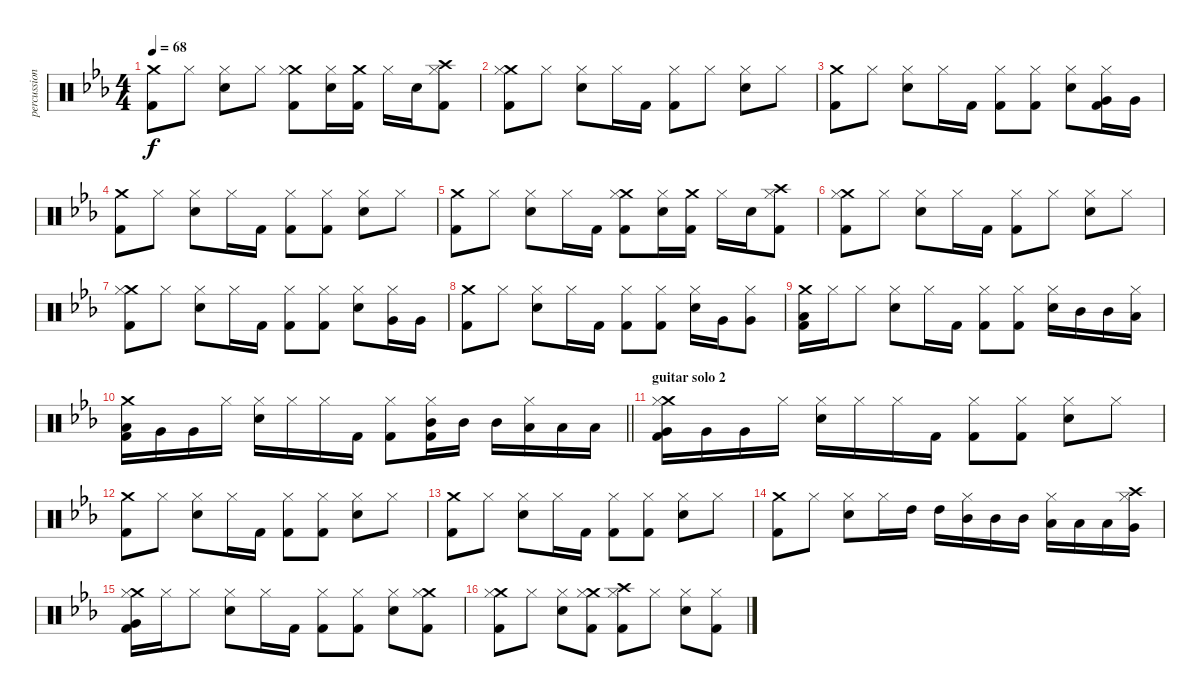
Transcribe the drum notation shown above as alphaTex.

\track ("percussion" "percussion") {instrument percussion}
\staff {score}
\articulation defaults
\ts (4 4)
\tempo 68
\clef neutral
\ks cminor
("Crash medium (hit)" "Kick (hit) 2").8{dy f} "Hi-Hat (closed)".8 ("Snare (hit) 2" "Hi-Hat (closed)").8 "Hi-Hat (closed)".8 ("Crash medium (hit)" "Hi-Hat (closed)" "Kick (hit) 2").8 ("Snare (hit) 2" "Hi-Hat (closed)").16 ("Crash medium (hit)" "Kick (hit) 2").16 "Hi-Hat (closed)".16 "Snare (hit) 2".16 ("Crash high (hit)" "Hi-Hat (closed)" "Kick (hit) 2").8 |
("Crash medium (hit)" "Hi-Hat (closed)" "Kick (hit) 2").8 "Hi-Hat (closed)".8 ("Snare (hit) 2" "Hi-Hat (closed)").8 "Hi-Hat (closed)".16 "Kick (hit) 2".16 ("Hi-Hat (closed)" "Kick (hit) 2").8 "Hi-Hat (closed)".8 ("Snare (hit) 2" "Hi-Hat (closed)").8 "Hi-Hat (closed)".8 |
("Crash medium (hit)" "Kick (hit) 2").8 "Hi-Hat (closed)".8 ("Snare (hit) 2" "Hi-Hat (closed)").8 "Hi-Hat (closed)".16 "Kick (hit) 2".16 ("Hi-Hat (closed)" "Kick (hit) 2").8 ("Hi-Hat (closed)" "Kick (hit) 2").8 ("Snare (hit) 2" "Hi-Hat (closed)").8 ("Very Low Tom (hit)" "Hi-Hat (closed)" "Kick (hit) 2").16 "Very Low Tom (hit)".16 |
("Crash medium (hit)" "Kick (hit) 2").8 "Hi-Hat (closed)".8 ("Snare (hit) 2" "Hi-Hat (closed)").8 "Hi-Hat (closed)".16 "Kick (hit) 2".16 ("Hi-Hat (closed)" "Kick (hit) 2").8 ("Hi-Hat (closed)" "Kick (hit) 2").8 ("Snare (hit) 2" "Hi-Hat (closed)").8 "Hi-Hat (closed)".8 |
("Crash medium (hit)" "Kick (hit) 2").8 "Hi-Hat (closed)".8 ("Snare (hit) 2" "Hi-Hat (closed)").8 "Hi-Hat (closed)".16 "Kick (hit) 2".16 ("Crash medium (hit)" "Hi-Hat (closed)" "Kick (hit) 2").8 ("Snare (hit) 2" "Hi-Hat (closed)").16 ("Crash medium (hit)" "Kick (hit) 2").16 "Hi-Hat (closed)".16 "Snare (hit) 2".16 ("Crash high (hit)" "Hi-Hat (closed)" "Kick (hit) 2").8 |
("Crash medium (hit)" "Hi-Hat (closed)" "Kick (hit) 2").8 "Hi-Hat (closed)".8 ("Snare (hit) 2" "Hi-Hat (closed)").8 "Hi-Hat (closed)".16 "Kick (hit) 2".16 ("Hi-Hat (closed)" "Kick (hit) 2").8 "Hi-Hat (closed)".8 ("Snare (hit) 2" "Hi-Hat (closed)").8 "Hi-Hat (closed)".8 |
("Crash medium (hit)" "Hi-Hat (closed)" "Kick (hit) 2").8 "Hi-Hat (closed)".8 ("Snare (hit) 2" "Hi-Hat (closed)").8 "Hi-Hat (closed)".16 "Kick (hit) 2".16 ("Hi-Hat (closed)" "Kick (hit) 2").8 ("Hi-Hat (closed)" "Kick (hit) 2").8 ("Snare (hit) 2" "Hi-Hat (closed)").8 ("Very Low Tom (hit)" "Hi-Hat (closed)").16 "Very Low Tom (hit)".16 |
("Crash medium (hit)" "Kick (hit) 2").8 "Hi-Hat (closed)".8 ("Snare (hit) 2" "Hi-Hat (closed)").8 "Hi-Hat (closed)".16 "Kick (hit) 2".16 ("Hi-Hat (closed)" "Kick (hit) 2").8 ("Hi-Hat (closed)" "Kick (hit) 2").8 ("Snare (hit) 2" "Hi-Hat (closed)").16 "Very Low Tom (hit)".16 ("Very Low Tom (hit)" "Hi-Hat (closed)").8 |
("Crash medium (hit)" "Low Tom (hit)" "Kick (hit) 2").16 "Hi-Hat (closed)".16 "Hi-Hat (closed)".8 ("Snare (hit) 2" "Hi-Hat (closed)").8 "Hi-Hat (closed)".16 "Kick (hit) 2".16 ("Hi-Hat (closed)" "Kick (hit) 2").8 ("Hi-Hat (closed)" "Kick (hit) 2").8 ("Snare (hit) 2" "Hi-Hat (closed)").16 "Mid Tom (hit)".16 "Mid Tom (hit)".16 ("Low Tom (hit)" "Hi-Hat (closed)").16 |
\barLineRight lightlight
("Crash medium (hit)" "Low Tom (hit)" "Kick (hit) 2").16 "Very Low Tom (hit)".16 "Very Low Tom (hit)".16 "Hi-Hat (closed)".16 ("Snare (hit) 2" "Hi-Hat (closed)").16 "Hi-Hat (closed)".16 "Hi-Hat (closed)".16 "Kick (hit) 2".16 ("Hi-Hat (closed)" "Kick (hit) 2").8 ("Mid Tom (hit)" "Hi-Hat (closed)" "Kick (hit) 2").16 "Mid Tom (hit)".16 "Mid Tom (hit)".16 ("Low Tom (hit)" "Hi-Hat (closed)").16 "Low Tom (hit)".16 "Low Tom (hit)".16 |
\section ("" "guitar solo 2")
("Crash medium (hit)" "Very Low Tom (hit)" "Hi-Hat (closed)" "Kick (hit) 2").16 "Very Low Tom (hit)".16 "Very Low Tom (hit)".16 "Hi-Hat (closed)".16 ("Snare (hit) 2" "Hi-Hat (closed)").16 "Hi-Hat (closed)".16 "Hi-Hat (closed)".16 "Kick (hit) 2".16 ("Hi-Hat (closed)" "Kick (hit) 2").8 ("Hi-Hat (closed)" "Kick (hit) 2").8 ("Snare (hit) 2" "Hi-Hat (closed)").8 "Hi-Hat (closed)".8 |
("Crash medium (hit)" "Kick (hit) 2").8 "Hi-Hat (closed)".8 ("Snare (hit) 2" "Hi-Hat (closed)").8 "Hi-Hat (closed)".16 "Kick (hit) 2".16 ("Hi-Hat (closed)" "Kick (hit) 2").8 ("Hi-Hat (closed)" "Kick (hit) 2").8 ("Snare (hit) 2" "Hi-Hat (closed)").8 "Hi-Hat (closed)".8 |
("Crash medium (hit)" "Kick (hit) 2").8 "Hi-Hat (closed)".8 ("Snare (hit) 2" "Hi-Hat (closed)").8 "Hi-Hat (closed)".16 "Kick (hit) 2".16 ("Hi-Hat (closed)" "Kick (hit) 2").8 ("Hi-Hat (closed)" "Kick (hit) 2").8 ("Snare (hit) 2" "Hi-Hat (closed)").8 "Hi-Hat (closed)".8 |
("Crash medium (hit)" "Kick (hit) 2").8 "Hi-Hat (closed)".8 ("Snare (hit) 2" "Hi-Hat (closed)").8 "Hi-Hat (closed)".16 "High Tom (hit)".16 "High Tom (hit)".16 ("Mid Tom (hit)" "Hi-Hat (closed)").16 "Mid Tom (hit)".16 "Mid Tom (hit)".16 ("Low Tom (hit)" "Hi-Hat (closed)").16 "Low Tom (hit)".16 "Low Tom (hit)".16 ("Crash high (hit)" "Very Low Tom (hit)" "Hi-Hat (closed)").16 |
("Crash medium (hit)" "Very Low Tom (hit)" "Hi-Hat (closed)" "Kick (hit) 2").16 "Hi-Hat (closed)".16 "Hi-Hat (closed)".8 ("Snare (hit) 2" "Hi-Hat (closed)").8 "Hi-Hat (closed)".16 "Kick (hit) 2".16 ("Hi-Hat (closed)" "Kick (hit) 2").8 ("Hi-Hat (closed)" "Kick (hit) 2").8 ("Snare (hit) 2" "Hi-Hat (closed)").8 ("Crash medium (hit)" "Hi-Hat (closed)" "Kick (hit) 2").8 |
("Crash medium (hit)" "Hi-Hat (closed)" "Kick (hit) 2").8 "Hi-Hat (closed)".8 ("Snare (hit) 2" "Hi-Hat (closed)").8 ("Crash medium (hit)" "Hi-Hat (closed)" "Kick (hit) 2").8 ("Crash high (hit)" "Hi-Hat (closed)" "Kick (hit) 2").8 "Hi-Hat (closed)".8 ("Snare (hit) 2" "Hi-Hat (closed)").8 ("Hi-Hat (closed)" "Kick (hit) 2").8
